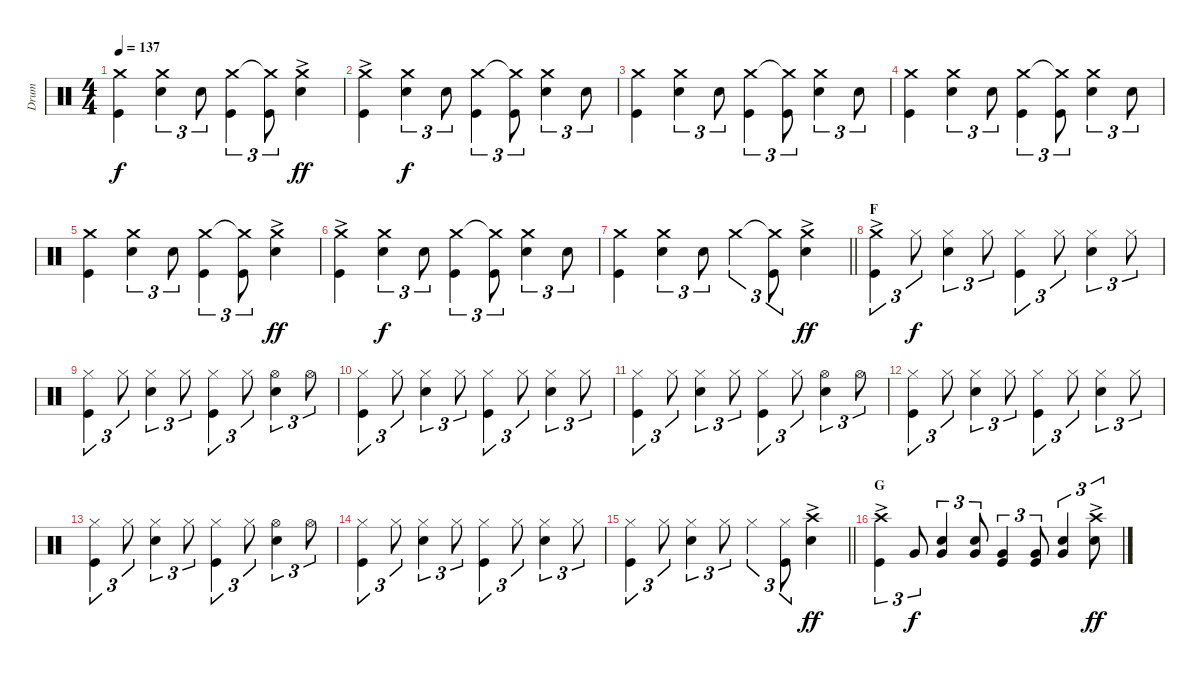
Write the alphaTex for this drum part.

\track ("Drum" "Drum") {instrument percussion}
\staff {score}
\articulation defaults
\ts (4 4)
\tempo 137
\clef neutral
\ks c
("Crash medium (hit)" "Kick (hit)").4{dy f} ("Crash medium (hit)" "Snare (hit) 2").4{tu (3 2)} "Snare (hit) 2".8{tu (3 2)} ("Crash medium (hit)" "Kick (hit)").4{tu (3 2)} ("Crash medium (hit)"{t} "Kick (hit)").8{tu (3 2)} ("Crash medium (hit)"{ac} "Snare (hit) 2"{ac}).4{dy ff} |
("Crash medium (hit)"{ac} "Kick (hit)"{ac}).4 ("Crash medium (hit)" "Snare (hit) 2").4{tu (3 2) dy f} "Snare (hit) 2".8{tu (3 2)} ("Crash medium (hit)" "Kick (hit)").4{tu (3 2)} ("Crash medium (hit)"{t} "Kick (hit)").8{tu (3 2)} ("Crash medium (hit)" "Snare (hit) 2").4{tu (3 2)} "Snare (hit) 2".8{tu (3 2)} |
("Crash medium (hit)" "Kick (hit)").4 ("Crash medium (hit)" "Snare (hit) 2").4{tu (3 2)} "Snare (hit) 2".8{tu (3 2)} ("Crash medium (hit)" "Kick (hit)").4{tu (3 2)} ("Crash medium (hit)"{t} "Kick (hit)").8{tu (3 2)} ("Crash medium (hit)" "Snare (hit) 2").4{tu (3 2)} "Snare (hit) 2".8{tu (3 2)} |
("Crash medium (hit)" "Kick (hit)").4 ("Crash medium (hit)" "Snare (hit) 2").4{tu (3 2)} "Snare (hit) 2".8{tu (3 2)} ("Crash medium (hit)" "Kick (hit)").4{tu (3 2)} ("Crash medium (hit)"{t} "Kick (hit)").8{tu (3 2)} ("Crash medium (hit)" "Snare (hit) 2").4{tu (3 2)} "Snare (hit) 2".8{tu (3 2)} |
("Crash medium (hit)" "Kick (hit)").4 ("Crash medium (hit)" "Snare (hit) 2").4{tu (3 2)} "Snare (hit) 2".8{tu (3 2)} ("Crash medium (hit)" "Kick (hit)").4{tu (3 2)} ("Crash medium (hit)"{t} "Kick (hit)").8{tu (3 2)} ("Crash medium (hit)"{ac} "Snare (hit) 2"{ac}).4{dy ff} |
("Crash medium (hit)"{ac} "Kick (hit)"{ac}).4 ("Crash medium (hit)" "Snare (hit) 2").4{tu (3 2) dy f} "Snare (hit) 2".8{tu (3 2)} ("Crash medium (hit)" "Kick (hit)").4{tu (3 2)} ("Crash medium (hit)"{t} "Kick (hit)").8{tu (3 2)} ("Crash medium (hit)" "Snare (hit) 2").4{tu (3 2)} "Snare (hit) 2".8{tu (3 2)} |
\barLineRight lightlight
("Crash medium (hit)" "Kick (hit)").4 ("Crash medium (hit)" "Snare (hit) 2").4{tu (3 2)} "Snare (hit) 2".8{tu (3 2)} "Crash medium (hit)".4{tu (3 2)} ("Crash medium (hit)"{t} "Kick (hit)").8{tu (3 2)} ("Crash medium (hit)"{ac} "Snare (hit) 2"{ac}).4{dy ff} |
\section ("" "F")
("Crash medium (hit)"{ac} "Kick (hit)"{ac}).4{tu (3 2)} "Hi-Hat (closed)".8{tu (3 2) dy f} ("Hi-Hat (closed)" "Snare (hit) 2").4{tu (3 2)} "Hi-Hat (closed)".8{tu (3 2)} ("Hi-Hat (closed)" "Kick (hit)").4{tu (3 2)} "Hi-Hat (closed)".8{tu (3 2)} ("Hi-Hat (closed)" "Snare (hit) 2").4{tu (3 2)} "Hi-Hat (closed)".8{tu (3 2)} |
("Hi-Hat (closed)" "Kick (hit)").4{tu (3 2)} "Hi-Hat (closed)".8{tu (3 2)} ("Hi-Hat (closed)" "Snare (hit) 2").4{tu (3 2)} "Hi-Hat (closed)".8{tu (3 2)} ("Hi-Hat (closed)" "Kick (hit)").4{tu (3 2)} "Hi-Hat (closed)".8{tu (3 2)} ("Hi-Hat (open)" "Snare (hit) 2").4{tu (3 2)} "Hi-Hat (open)".8{tu (3 2)} |
("Hi-Hat (closed)" "Kick (hit)").4{tu (3 2)} "Hi-Hat (closed)".8{tu (3 2)} ("Hi-Hat (closed)" "Snare (hit) 2").4{tu (3 2)} "Hi-Hat (closed)".8{tu (3 2)} ("Hi-Hat (closed)" "Kick (hit)").4{tu (3 2)} "Hi-Hat (closed)".8{tu (3 2)} ("Hi-Hat (closed)" "Snare (hit) 2").4{tu (3 2)} "Hi-Hat (closed)".8{tu (3 2)} |
("Hi-Hat (closed)" "Kick (hit)").4{tu (3 2)} "Hi-Hat (closed)".8{tu (3 2)} ("Hi-Hat (closed)" "Snare (hit) 2").4{tu (3 2)} "Hi-Hat (closed)".8{tu (3 2)} ("Hi-Hat (closed)" "Kick (hit)").4{tu (3 2)} "Hi-Hat (closed)".8{tu (3 2)} ("Hi-Hat (open)" "Snare (hit) 2").4{tu (3 2)} "Hi-Hat (open)".8{tu (3 2)} |
("Hi-Hat (closed)" "Kick (hit)").4{tu (3 2)} "Hi-Hat (closed)".8{tu (3 2)} ("Hi-Hat (closed)" "Snare (hit) 2").4{tu (3 2)} "Hi-Hat (closed)".8{tu (3 2)} ("Hi-Hat (closed)" "Kick (hit)").4{tu (3 2)} "Hi-Hat (closed)".8{tu (3 2)} ("Hi-Hat (closed)" "Snare (hit) 2").4{tu (3 2)} "Hi-Hat (closed)".8{tu (3 2)} |
("Hi-Hat (closed)" "Kick (hit)").4{tu (3 2)} "Hi-Hat (closed)".8{tu (3 2)} ("Hi-Hat (closed)" "Snare (hit) 2").4{tu (3 2)} "Hi-Hat (closed)".8{tu (3 2)} ("Hi-Hat (closed)" "Kick (hit)").4{tu (3 2)} "Hi-Hat (closed)".8{tu (3 2)} ("Hi-Hat (open)" "Snare (hit) 2").4{tu (3 2)} "Hi-Hat (open)".8{tu (3 2)} |
("Hi-Hat (closed)" "Kick (hit)").4{tu (3 2)} "Hi-Hat (closed)".8{tu (3 2)} ("Hi-Hat (closed)" "Snare (hit) 2").4{tu (3 2)} "Hi-Hat (closed)".8{tu (3 2)} ("Hi-Hat (closed)" "Kick (hit)").4{tu (3 2)} "Hi-Hat (closed)".8{tu (3 2)} ("Hi-Hat (closed)" "Snare (hit) 2").4{tu (3 2)} "Hi-Hat (closed)".8{tu (3 2)} |
\barLineRight lightlight
("Hi-Hat (closed)" "Kick (hit)").4{tu (3 2)} "Hi-Hat (closed)".8{tu (3 2)} ("Hi-Hat (closed)" "Snare (hit) 2").4{tu (3 2)} "Hi-Hat (closed)".8{tu (3 2)} "Hi-Hat (closed)".4{tu (3 2)} ("Hi-Hat (closed)" "Kick (hit)").8{tu (3 2)} ("Crash high (hit)"{ac} "Snare (hit) 2"{ac}).4{dy ff} |
\section ("" "G")
("Crash high (hit)"{ac} "Kick (hit)"{ac}).4{tu (3 2)} "Very Low Tom (hit)".8{tu (3 2) dy f} ("Snare (hit) 2" "Very Low Tom (hit)").4{tu (3 2)} ("Snare (hit) 2" "Very Low Tom (hit)").8{tu (3 2)} ("Very Low Tom (hit)" "Kick (hit)").4{tu (3 2)} ("Very Low Tom (hit)" "Kick (hit)").8{tu (3 2)} ("Snare (hit) 2" "Very Low Tom (hit)").4{tu (3 2)} ("Crash high (hit)"{ac} "Snare (hit) 2"{ac}).8{tu (3 2) dy ff}
